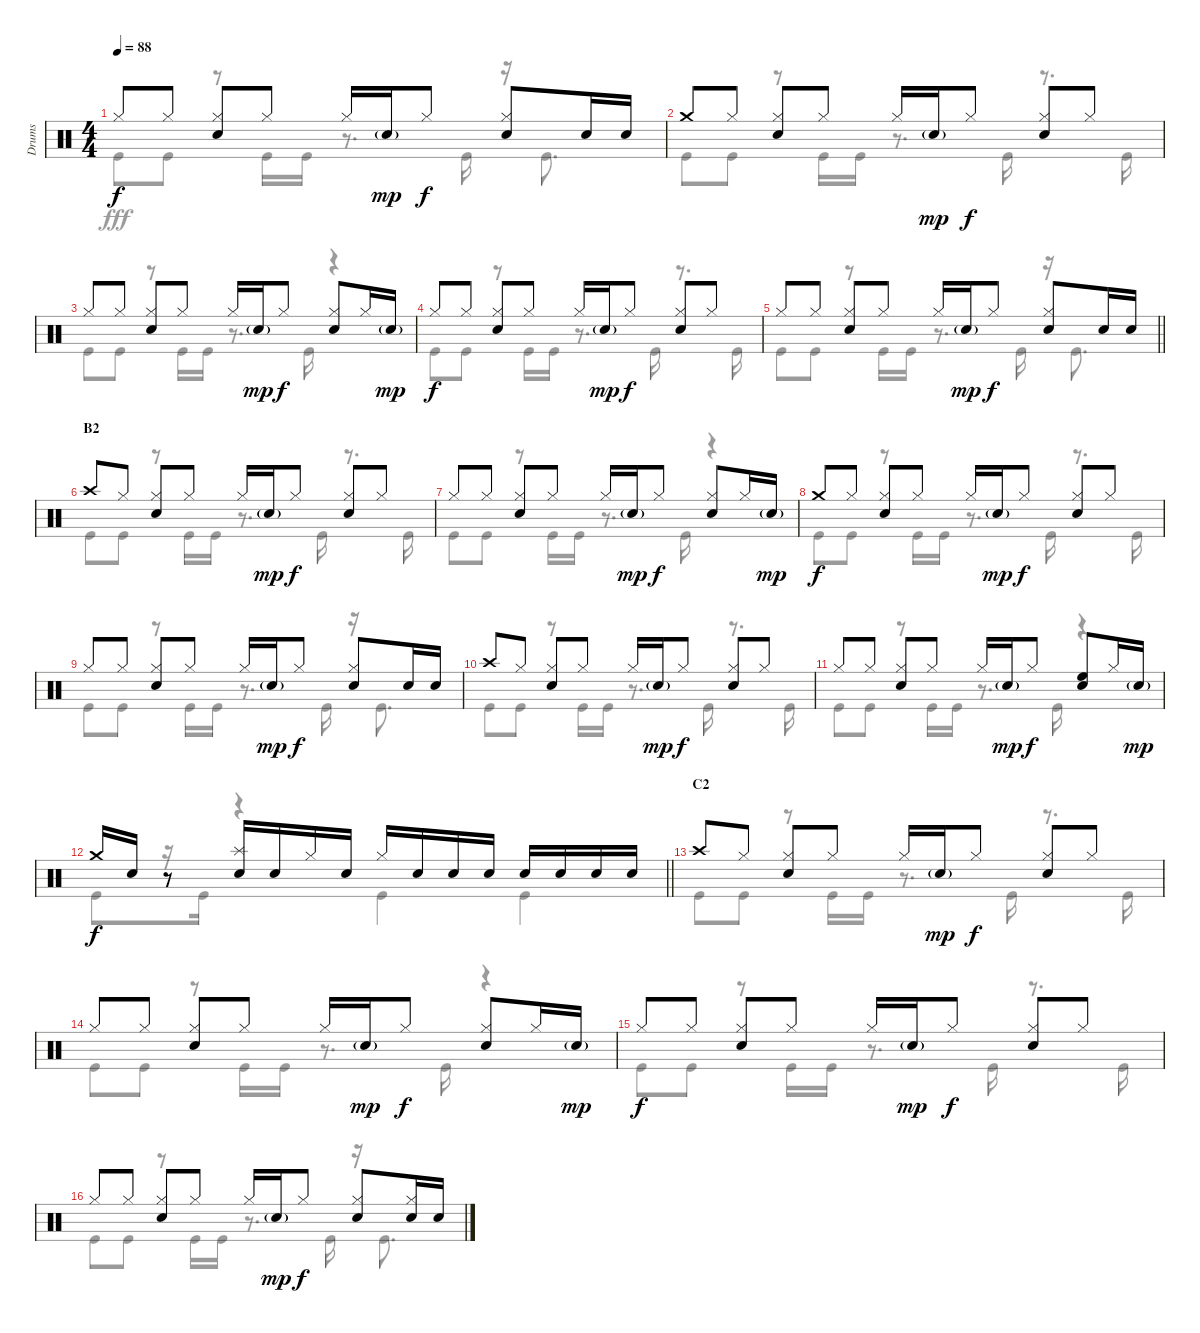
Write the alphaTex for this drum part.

\track ("Drums" "Drums") {instrument percussion}
\staff {score}
\articulation defaults
\voice
\ts (4 4)
\tempo 88
\clef neutral
\ks c "Hi-Hat (closed)".8{dy f} "Hi-Hat (closed)".8
("Hi-Hat (closed)" "Snare (hit) 2").8 "Hi-Hat (closed)".8 "Hi-Hat (closed)".16 "Snare (hit) 2"{g}.16{dy mp} "Hi-Hat (closed)".8{dy f} ("Hi-Hat (closed)" "Snare (hit) 2").8 "Snare (hit) 2".16 "Snare (hit) 2".16 |
"Crash medium (hit)".8 "Hi-Hat (closed)".8 ("Hi-Hat (closed)" "Snare (hit) 2").8 "Hi-Hat (closed)".8 "Hi-Hat (closed)".16 "Snare (hit) 2"{g}.16{dy mp} "Hi-Hat (closed)".8{dy f} ("Hi-Hat (closed)" "Snare (hit) 2").8 "Hi-Hat (closed)".8 |
"Hi-Hat (closed)".8 "Hi-Hat (closed)".8 ("Hi-Hat (closed)" "Snare (hit) 2").8 "Hi-Hat (closed)".8 "Hi-Hat (closed)".16 "Snare (hit) 2"{g}.16{dy mp} "Hi-Hat (closed)".8{dy f} ("Hi-Hat (closed)" "Snare (hit) 2").8 "Hi-Hat (closed)".16 "Snare (hit) 2"{g}.16{dy mp} |
"Hi-Hat (closed)".8{dy f} "Hi-Hat (closed)".8 ("Hi-Hat (closed)" "Snare (hit) 2").8 "Hi-Hat (closed)".8 "Hi-Hat (closed)".16 "Snare (hit) 2"{g}.16{dy mp} "Hi-Hat (closed)".8{dy f} ("Hi-Hat (closed)" "Snare (hit) 2").8 "Hi-Hat (closed)".8 |
\barLineRight lightlight "Hi-Hat (closed)".8 "Hi-Hat (closed)".8
("Hi-Hat (closed)" "Snare (hit) 2").8 "Hi-Hat (closed)".8 "Hi-Hat (closed)".16 "Snare (hit) 2"{g}.16{dy mp} "Hi-Hat (closed)".8{dy f} ("Hi-Hat (closed)" "Snare (hit) 2").8 "Snare (hit) 2".16 "Snare (hit) 2".16 |
\section ("" "B2")
"Crash high (hit)".8 "Hi-Hat (closed)".8 ("Hi-Hat (closed)" "Snare (hit) 2").8 "Hi-Hat (closed)".8 "Hi-Hat (closed)".16 "Snare (hit) 2"{g}.16{dy mp} "Hi-Hat (closed)".8{dy f} ("Hi-Hat (closed)" "Snare (hit) 2").8 "Hi-Hat (closed)".8 |
"Hi-Hat (closed)".8 "Hi-Hat (closed)".8 ("Hi-Hat (closed)" "Snare (hit) 2").8 "Hi-Hat (closed)".8 "Hi-Hat (closed)".16 "Snare (hit) 2"{g}.16{dy mp} "Hi-Hat (closed)".8{dy f} ("Hi-Hat (closed)" "Snare (hit) 2").8 "Hi-Hat (closed)".16 "Snare (hit) 2"{g}.16{dy mp} |
"Crash medium (hit)".8{dy f} "Hi-Hat (closed)".8 ("Hi-Hat (closed)" "Snare (hit) 2").8 "Hi-Hat (closed)".8 "Hi-Hat (closed)".16 "Snare (hit) 2"{g}.16{dy mp} "Hi-Hat (closed)".8{dy f} ("Hi-Hat (closed)" "Snare (hit) 2").8 "Hi-Hat (closed)".8 |
"Hi-Hat (closed)".8 "Hi-Hat (closed)".8 ("Hi-Hat (closed)" "Snare (hit) 2").8 "Hi-Hat (closed)".8 "Hi-Hat (closed)".16 "Snare (hit) 2"{g}.16{dy mp} "Hi-Hat (closed)".8{dy f} ("Hi-Hat (closed)" "Snare (hit) 2").8 "Snare (hit) 2".16 "Snare (hit) 2".16 |
"Crash high (hit)".8 "Hi-Hat (closed)".8 ("Hi-Hat (closed)" "Snare (hit) 2").8 "Hi-Hat (closed)".8 "Hi-Hat (closed)".16 "Snare (hit) 2"{g}.16{dy mp} "Hi-Hat (closed)".8{dy f} ("Hi-Hat (closed)" "Snare (hit) 2").8 "Hi-Hat (closed)".8 |
"Hi-Hat (closed)".8 "Hi-Hat (closed)".8 ("Hi-Hat (closed)" "Snare (hit) 2").8 "Hi-Hat (closed)".8 "Hi-Hat (closed)".16 "Snare (hit) 2"{g}.16{dy mp} "Hi-Hat (closed)".8{dy f} ("High Floor Tom (hit)" "Snare (hit) 2").8 "Hi-Hat (closed)".16 "Snare (hit) 2"{g}.16{dy mp} |
\barLineRight lightlight "Crash medium (hit)".16{dy f} "Snare (hit) 2".16
r.8 ("Splash (hit)" "Snare (hit) 2").16 "Snare (hit) 2".16 "Hi-Hat (closed)".16 "Snare (hit) 2".16 "Hi-Hat (closed)".16 "Snare (hit) 2".16 "Snare (hit) 2".16 "Snare (hit) 2".16 "Snare (hit) 2".16 "Snare (hit) 2".16 "Snare (hit) 2".16 "Snare (hit) 2".16 |
\section ("" "C2")
"Crash high (hit)".8 "Hi-Hat (closed)".8 ("Hi-Hat (closed)" "Snare (hit) 2").8 "Hi-Hat (closed)".8 "Hi-Hat (closed)".16 "Snare (hit) 2"{g}.16{dy mp} "Hi-Hat (closed)".8{dy f} ("Hi-Hat (closed)" "Snare (hit) 2").8 "Hi-Hat (closed)".8 |
"Hi-Hat (closed)".8 "Hi-Hat (closed)".8 ("Hi-Hat (closed)" "Snare (hit) 2").8 "Hi-Hat (closed)".8 "Hi-Hat (closed)".16 "Snare (hit) 2"{g}.16{dy mp} "Hi-Hat (closed)".8{dy f} ("Hi-Hat (closed)" "Snare (hit) 2").8 "Hi-Hat (closed)".16 "Snare (hit) 2"{g}.16{dy mp} |
"Hi-Hat (closed)".8{dy f} "Hi-Hat (closed)".8 ("Hi-Hat (closed)" "Snare (hit) 2").8 "Hi-Hat (closed)".8 "Hi-Hat (closed)".16 "Snare (hit) 2"{g}.16{dy mp} "Hi-Hat (closed)".8{dy f} ("Hi-Hat (closed)" "Snare (hit) 2").8 "Hi-Hat (closed)".8 |
"Hi-Hat (closed)".8 "Hi-Hat (closed)".8 ("Hi-Hat (closed)" "Snare (hit) 2").8 "Hi-Hat (closed)".8 "Hi-Hat (closed)".16 "Snare (hit) 2"{g}.16{dy mp} "Hi-Hat (closed)".8{dy f} ("Hi-Hat (closed)" "Snare (hit) 2").8 ("Hi-Hat (closed)" "Snare (hit) 2").16 "Snare (hit) 2".16
\voice
\clef neutral
\ottava regular
\simile none
\ks c "Kick (hit)".8{dy fff} "Kick (hit)".8
r.8 "Kick (hit)".16 "Kick (hit)".16 r.8{d} "Kick (hit)".16 r.16 "Kick (hit)".8{d} |
"Kick (hit)".8 "Kick (hit)".8 r.8 "Kick (hit)".16 "Kick (hit)".16 r.8{d} "Kick (hit)".16 r.8{d} "Kick (hit)".16 |
"Kick (hit)".8 "Kick (hit)".8 r.8 "Kick (hit)".16 "Kick (hit)".16 r.8{d} "Kick (hit)".16 r.4 |
"Kick (hit)".8 "Kick (hit)".8 r.8 "Kick (hit)".16 "Kick (hit)".16 r.8{d} "Kick (hit)".16 r.8{d} "Kick (hit)".16 |
\barLineRight lightlight "Kick (hit)".8 "Kick (hit)".8
r.8 "Kick (hit)".16 "Kick (hit)".16 r.8{d} "Kick (hit)".16 r.16 "Kick (hit)".8{d} |
"Kick (hit)".8 "Kick (hit)".8 r.8 "Kick (hit)".16 "Kick (hit)".16 r.8{d} "Kick (hit)".16 r.8{d} "Kick (hit)".16 |
"Kick (hit)".8 "Kick (hit)".8 r.8 "Kick (hit)".16 "Kick (hit)".16 r.8{d} "Kick (hit)".16 r.4 |
"Kick (hit)".8 "Kick (hit)".8 r.8 "Kick (hit)".16 "Kick (hit)".16 r.8{d} "Kick (hit)".16 r.8{d} "Kick (hit)".16 |
"Kick (hit)".8 "Kick (hit)".8 r.8 "Kick (hit)".16 "Kick (hit)".16 r.8{d} "Kick (hit)".16 r.16 "Kick (hit)".8{d} |
"Kick (hit)".8 "Kick (hit)".8 r.8 "Kick (hit)".16 "Kick (hit)".16 r.8{d} "Kick (hit)".16 r.8{d} "Kick (hit)".16 |
"Kick (hit)".8 "Kick (hit)".8 r.8 "Kick (hit)".16 "Kick (hit)".16 r.8{d} "Kick (hit)".16 r.4 |
\barLineRight lightlight "Kick (hit)".8
r.16 "Kick (hit)".16 r.4 "Kick (hit)".4 "Kick (hit)".4 |
"Kick (hit)".8 "Kick (hit)".8 r.8 "Kick (hit)".16 "Kick (hit)".16 r.8{d} "Kick (hit)".16 r.8{d} "Kick (hit)".16 |
"Kick (hit)".8 "Kick (hit)".8 r.8 "Kick (hit)".16 "Kick (hit)".16 r.8{d} "Kick (hit)".16 r.4 |
"Kick (hit)".8 "Kick (hit)".8 r.8 "Kick (hit)".16 "Kick (hit)".16 r.8{d} "Kick (hit)".16 r.8{d} "Kick (hit)".16 |
"Kick (hit)".8 "Kick (hit)".8 r.8 "Kick (hit)".16 "Kick (hit)".16 r.8{d} "Kick (hit)".16 r.16 "Kick (hit)".8{d}
